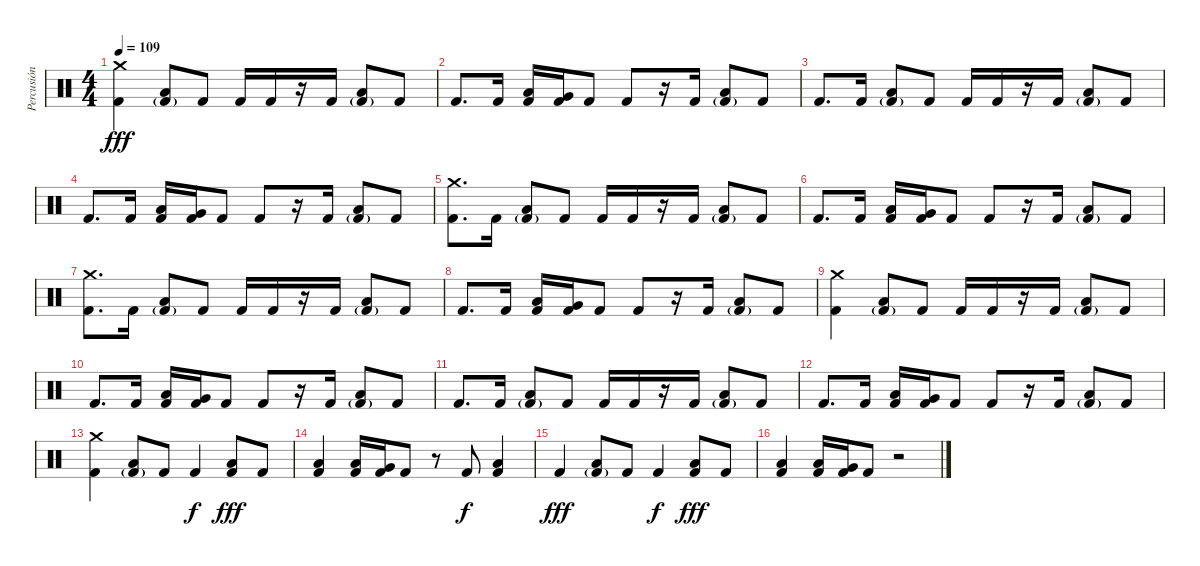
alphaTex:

\track ("Percusión" "Percusión") {instrument percussion}
\staff {score}
\articulation defaults
\ts (4 4)
\tempo 109
\clef neutral
\ks c
("Crash medium (hit)" "Kick (hit) 2").4{dy fff} ("Low Tom (hit)" "Kick (hit) 2"{g}).8 "Kick (hit) 2".8 "Kick (hit) 2".16 "Kick (hit) 2".16 r.16 "Kick (hit) 2".16 ("Low Tom (hit)" "Kick (hit) 2"{g}).8 "Kick (hit) 2".8 |
"Kick (hit) 2".8{d} "Kick (hit) 2".16 ("Low Tom (hit)" "Kick (hit) 2").16 ("Very Low Tom (hit)" "Kick (hit) 2").16 "Kick (hit) 2".8 "Kick (hit) 2".8 r.16 "Kick (hit) 2".16 ("Low Tom (hit)" "Kick (hit) 2"{g}).8 "Kick (hit) 2".8 |
"Kick (hit) 2".8{d} "Kick (hit) 2".16 ("Low Tom (hit)" "Kick (hit) 2"{g}).8 "Kick (hit) 2".8 "Kick (hit) 2".16 "Kick (hit) 2".16 r.16 "Kick (hit) 2".16 ("Low Tom (hit)" "Kick (hit) 2"{g}).8 "Kick (hit) 2".8 |
"Kick (hit) 2".8{d} "Kick (hit) 2".16 ("Low Tom (hit)" "Kick (hit) 2").16 ("Very Low Tom (hit)" "Kick (hit) 2").16 "Kick (hit) 2".8 "Kick (hit) 2".8 r.16 "Kick (hit) 2".16 ("Low Tom (hit)" "Kick (hit) 2"{g}).8 "Kick (hit) 2".8 |
("Crash medium (hit)" "Kick (hit) 2").8{d} "Kick (hit) 2".16 ("Low Tom (hit)" "Kick (hit) 2"{g}).8 "Kick (hit) 2".8 "Kick (hit) 2".16 "Kick (hit) 2".16 r.16 "Kick (hit) 2".16 ("Low Tom (hit)" "Kick (hit) 2"{g}).8 "Kick (hit) 2".8 |
"Kick (hit) 2".8{d} "Kick (hit) 2".16 ("Low Tom (hit)" "Kick (hit) 2").16 ("Very Low Tom (hit)" "Kick (hit) 2").16 "Kick (hit) 2".8 "Kick (hit) 2".8 r.16 "Kick (hit) 2".16 ("Low Tom (hit)" "Kick (hit) 2"{g}).8 "Kick (hit) 2".8 |
("Crash medium (hit)" "Kick (hit) 2").8{d} "Kick (hit) 2".16 ("Low Tom (hit)" "Kick (hit) 2"{g}).8 "Kick (hit) 2".8 "Kick (hit) 2".16 "Kick (hit) 2".16 r.16 "Kick (hit) 2".16 ("Low Tom (hit)" "Kick (hit) 2"{g}).8 "Kick (hit) 2".8 |
"Kick (hit) 2".8{d} "Kick (hit) 2".16 ("Low Tom (hit)" "Kick (hit) 2").16 ("Very Low Tom (hit)" "Kick (hit) 2").16 "Kick (hit) 2".8 "Kick (hit) 2".8 r.16 "Kick (hit) 2".16 ("Low Tom (hit)" "Kick (hit) 2"{g}).8 "Kick (hit) 2".8 |
("Crash medium (hit)" "Kick (hit) 2").4 ("Low Tom (hit)" "Kick (hit) 2"{g}).8 "Kick (hit) 2".8 "Kick (hit) 2".16 "Kick (hit) 2".16 r.16 "Kick (hit) 2".16 ("Low Tom (hit)" "Kick (hit) 2"{g}).8 "Kick (hit) 2".8 |
"Kick (hit) 2".8{d} "Kick (hit) 2".16 ("Low Tom (hit)" "Kick (hit) 2").16 ("Very Low Tom (hit)" "Kick (hit) 2").16 "Kick (hit) 2".8 "Kick (hit) 2".8 r.16 "Kick (hit) 2".16 ("Low Tom (hit)" "Kick (hit) 2"{g}).8 "Kick (hit) 2".8 |
"Kick (hit) 2".8{d} "Kick (hit) 2".16 ("Low Tom (hit)" "Kick (hit) 2"{g}).8 "Kick (hit) 2".8 "Kick (hit) 2".16 "Kick (hit) 2".16 r.16 "Kick (hit) 2".16 ("Low Tom (hit)" "Kick (hit) 2"{g}).8 "Kick (hit) 2".8 |
"Kick (hit) 2".8{d} "Kick (hit) 2".16 ("Low Tom (hit)" "Kick (hit) 2").16 ("Very Low Tom (hit)" "Kick (hit) 2").16 "Kick (hit) 2".8 "Kick (hit) 2".8 r.16 "Kick (hit) 2".16 ("Low Tom (hit)" "Kick (hit) 2"{g}).8 "Kick (hit) 2".8 |
("Crash medium (hit)" "Kick (hit) 2").4 ("Low Tom (hit)" "Kick (hit) 2"{g}).8 "Kick (hit) 2".8 "Kick (hit) 2".4{dy f} ("Low Tom (hit)" "Kick (hit) 2").8{dy fff} "Kick (hit) 2".8 |
("Low Tom (hit)" "Kick (hit) 2").4 ("Low Tom (hit)" "Kick (hit) 2").16 ("Very Low Tom (hit)" "Kick (hit) 2").16 "Kick (hit) 2".8 r.8 "Kick (hit) 2".8{dy f} ("Low Tom (hit)" "Kick (hit) 2").4 |
"Kick (hit) 2".4{dy fff} ("Low Tom (hit)" "Kick (hit) 2"{g}).8 "Kick (hit) 2".8 "Kick (hit) 2".4{dy f} ("Low Tom (hit)" "Kick (hit) 2").8{dy fff} "Kick (hit) 2".8 |
("Low Tom (hit)" "Kick (hit) 2").4 ("Low Tom (hit)" "Kick (hit) 2").16 ("Very Low Tom (hit)" "Kick (hit) 2").16 "Kick (hit) 2".8 r.2
